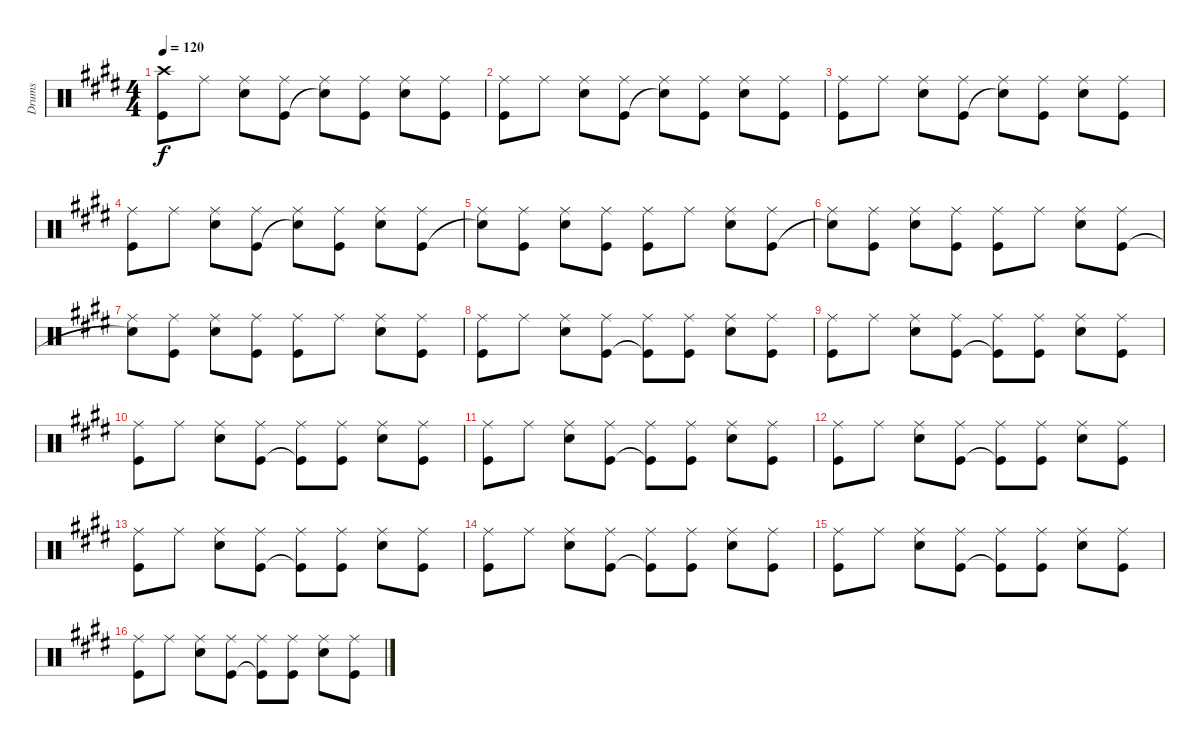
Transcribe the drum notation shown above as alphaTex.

\track ("Drums" "Drums") {instrument percussion}
\staff {score}
\articulation defaults
\ts (4 4)
\tempo 120
\clef neutral
\ks e
("Crash high (hit)" "Kick (hit)").8{dy f} "Ride (middle)".8 ("Ride (middle)" "Snare (hit) 2").8 ("Ride (middle)" "Kick (hit)").8 ("Ride (middle)" "Snare (hit)"{t}).8 ("Ride (middle)" "Kick (hit)").8 ("Ride (middle)" "Snare (hit) 2").8 ("Ride (middle)" "Kick (hit)").8 |
("Ride (middle)" "Kick (hit)").8 "Ride (middle)".8 ("Ride (middle)" "Snare (hit) 2").8 ("Ride (middle)" "Kick (hit)").8 ("Ride (middle)" "Snare (hit)"{t}).8 ("Ride (middle)" "Kick (hit)").8 ("Ride (middle)" "Snare (hit) 2").8 ("Ride (middle)" "Kick (hit)").8 |
("Ride (middle)" "Kick (hit)").8 "Ride (middle)".8 ("Ride (middle)" "Snare (hit) 2").8 ("Ride (middle)" "Kick (hit)").8 ("Ride (middle)" "Snare (hit)"{t}).8 ("Ride (middle)" "Kick (hit)").8 ("Ride (middle)" "Snare (hit) 2").8 ("Ride (middle)" "Kick (hit)").8 |
("Ride (middle)" "Kick (hit)").8 "Ride (middle)".8 ("Ride (middle)" "Snare (hit) 2").8 ("Ride (middle)" "Kick (hit)").8 ("Ride (middle)" "Snare (hit)"{t}).8 ("Ride (middle)" "Kick (hit)").8 ("Ride (middle)" "Snare (hit) 2").8 ("Ride (middle)" "Kick (hit)").8 |
("Ride (middle)" "Snare (hit)"{t}).8 ("Ride (middle)" "Kick (hit)").8 ("Ride (middle)" "Snare (hit) 2").8 ("Ride (middle)" "Kick (hit)").8 ("Ride (middle)" "Kick (hit)").8 "Ride (middle)".8 ("Ride (middle)" "Snare (hit) 2").8 ("Ride (middle)" "Kick (hit)").8 |
("Ride (middle)" "Snare (hit)"{t}).8 ("Ride (middle)" "Kick (hit)").8 ("Ride (middle)" "Snare (hit) 2").8 ("Ride (middle)" "Kick (hit)").8 ("Ride (middle)" "Kick (hit)").8 "Ride (middle)".8 ("Ride (middle)" "Snare (hit) 2").8 ("Ride (middle)" "Kick (hit)").8 |
("Ride (middle)" "Snare (hit)"{t}).8 ("Ride (middle)" "Kick (hit)").8 ("Ride (middle)" "Snare (hit) 2").8 ("Ride (middle)" "Kick (hit)").8 ("Ride (middle)" "Kick (hit)").8 "Ride (middle)".8 ("Ride (middle)" "Snare (hit) 2").8 ("Ride (middle)" "Kick (hit)").8 |
("Ride (middle)" "Kick (hit)").8 "Ride (middle)".8 ("Ride (middle)" "Snare (hit) 2").8 ("Ride (middle)" "Kick (hit)").8 ("Ride (middle)" "Kick (hit)"{t}).8 ("Ride (middle)" "Kick (hit)").8 ("Ride (middle)" "Snare (hit) 2").8 ("Ride (middle)" "Kick (hit)").8 |
("Ride (middle)" "Kick (hit)").8 "Ride (middle)".8 ("Ride (middle)" "Snare (hit) 2").8 ("Ride (middle)" "Kick (hit)").8 ("Ride (middle)" "Kick (hit)"{t}).8 ("Ride (middle)" "Kick (hit)").8 ("Ride (middle)" "Snare (hit) 2").8 ("Ride (middle)" "Kick (hit)").8 |
("Ride (middle)" "Kick (hit)").8 "Ride (middle)".8 ("Ride (middle)" "Snare (hit) 2").8 ("Ride (middle)" "Kick (hit)").8 ("Ride (middle)" "Kick (hit)"{t}).8 ("Ride (middle)" "Kick (hit)").8 ("Ride (middle)" "Snare (hit) 2").8 ("Ride (middle)" "Kick (hit)").8 |
("Ride (middle)" "Kick (hit)").8 "Ride (middle)".8 ("Ride (middle)" "Snare (hit) 2").8 ("Ride (middle)" "Kick (hit)").8 ("Ride (middle)" "Kick (hit)"{t}).8 ("Ride (middle)" "Kick (hit)").8 ("Ride (middle)" "Snare (hit) 2").8 ("Ride (middle)" "Kick (hit)").8 |
("Ride (middle)" "Kick (hit)").8 "Ride (middle)".8 ("Ride (middle)" "Snare (hit) 2").8 ("Ride (middle)" "Kick (hit)").8 ("Ride (middle)" "Kick (hit)"{t}).8 ("Ride (middle)" "Kick (hit)").8 ("Ride (middle)" "Snare (hit) 2").8 ("Ride (middle)" "Kick (hit)").8 |
("Ride (middle)" "Kick (hit)").8 "Ride (middle)".8 ("Ride (middle)" "Snare (hit) 2").8 ("Ride (middle)" "Kick (hit)").8 ("Ride (middle)" "Kick (hit)"{t}).8 ("Ride (middle)" "Kick (hit)").8 ("Ride (middle)" "Snare (hit) 2").8 ("Ride (middle)" "Kick (hit)").8 |
("Ride (middle)" "Kick (hit)").8 "Ride (middle)".8 ("Ride (middle)" "Snare (hit) 2").8 ("Ride (middle)" "Kick (hit)").8 ("Ride (middle)" "Kick (hit)"{t}).8 ("Ride (middle)" "Kick (hit)").8 ("Ride (middle)" "Snare (hit) 2").8 ("Ride (middle)" "Kick (hit)").8 |
("Ride (middle)" "Kick (hit)").8 "Ride (middle)".8 ("Ride (middle)" "Snare (hit) 2").8 ("Ride (middle)" "Kick (hit)").8 ("Ride (middle)" "Kick (hit)"{t}).8 ("Ride (middle)" "Kick (hit)").8 ("Ride (middle)" "Snare (hit) 2").8 ("Ride (middle)" "Kick (hit)").8 |
("Ride (middle)" "Kick (hit)").8 "Ride (middle)".8 ("Ride (middle)" "Snare (hit) 2").8 ("Ride (middle)" "Kick (hit)").8 ("Ride (middle)" "Kick (hit)"{t}).8 ("Ride (middle)" "Kick (hit)").8 ("Ride (middle)" "Snare (hit) 2").8 ("Ride (middle)" "Kick (hit)").8
